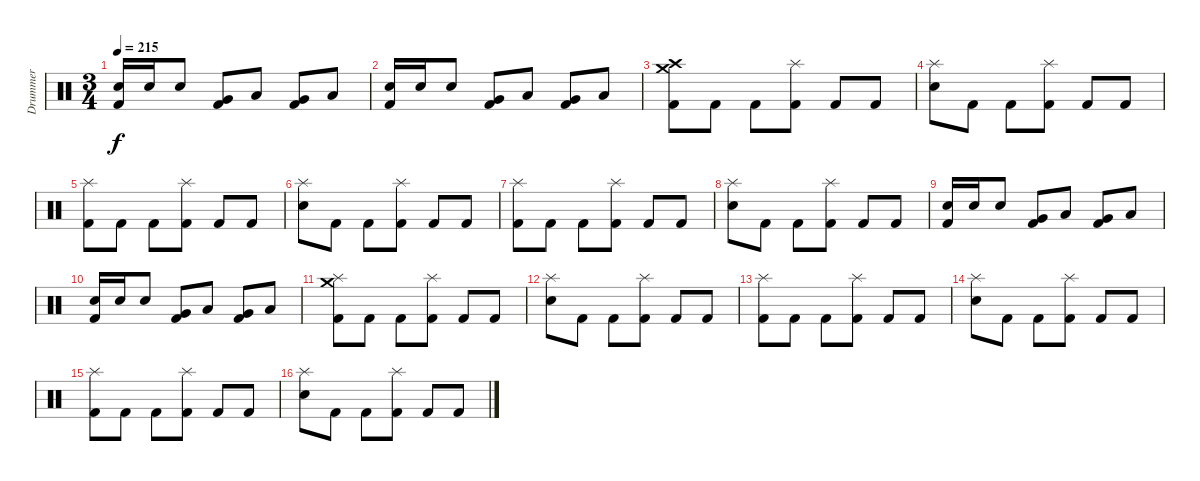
\track ("Drummer" "Drummer") {instrument percussion bank 7}
\staff {score}
\articulation defaults
\ts (3 4)
\tempo 215
\clef neutral
\ks c
("Electric Snare (hit)" "Kick (hit) 2").16{dy f} "Electric Snare (hit)".16 "Electric Snare (hit)".8 ("Very Low Tom (hit)" "Kick (hit) 2").8 "Low Tom (hit)".8 ("Very Low Tom (hit)" "Kick (hit) 2").8 "Low Floor Tom (hit)".8 |
("Electric Snare (hit)" "Kick (hit) 2").16 "Electric Snare (hit)".16 "Electric Snare (hit)".8 ("Very Low Tom (hit)" "Kick (hit) 2").8 "Low Tom (hit)".8 ("Very Low Tom (hit)" "Kick (hit) 2").8 "Low Floor Tom (hit)".8 |
("Crash medium (hit)" "Crash high (hit)" "Kick (hit) 2").8 "Kick (hit) 2".8 "Kick (hit) 2".8 ("Splash (hit)" "Kick (hit) 2").8 "Kick (hit) 2".8 "Kick (hit) 2".8 |
("Splash (hit)" "Electric Snare (hit)").8 "Kick (hit) 2".8 "Kick (hit) 2".8 ("Splash (hit)" "Kick (hit) 2").8 "Kick (hit) 2".8 "Kick (hit) 2".8 |
("Splash (hit)" "Kick (hit) 2").8 "Kick (hit) 2".8 "Kick (hit) 2".8 ("Splash (hit)" "Kick (hit) 2").8 "Kick (hit) 2".8 "Kick (hit) 2".8 |
("Splash (hit)" "Electric Snare (hit)").8 "Kick (hit) 2".8 "Kick (hit) 2".8 ("Splash (hit)" "Kick (hit) 2").8 "Kick (hit) 2".8 "Kick (hit) 2".8 |
("Splash (hit)" "Kick (hit) 2").8 "Kick (hit) 2".8 "Kick (hit) 2".8 ("Splash (hit)" "Kick (hit) 2").8 "Kick (hit) 2".8 "Kick (hit) 2".8 |
("Splash (hit)" "Electric Snare (hit)").8 "Kick (hit) 2".8 "Kick (hit) 2".8 ("Splash (hit)" "Kick (hit) 2").8 "Kick (hit) 2".8 "Kick (hit) 2".8 |
("Electric Snare (hit)" "Kick (hit) 2").16 "Electric Snare (hit)".16 "Electric Snare (hit)".8 ("Very Low Tom (hit)" "Kick (hit) 2").8 "Low Tom (hit)".8 ("Very Low Tom (hit)" "Kick (hit) 2").8 "Low Floor Tom (hit)".8 |
("Electric Snare (hit)" "Kick (hit) 2").16 "Electric Snare (hit)".16 "Electric Snare (hit)".8 ("Very Low Tom (hit)" "Kick (hit) 2").8 "Low Tom (hit)".8 ("Very Low Tom (hit)" "Kick (hit) 2").8 "Low Floor Tom (hit)".8 |
("Crash medium (hit)" "Splash (hit)" "Kick (hit) 2").8 "Kick (hit) 2".8 "Kick (hit) 2".8 ("Splash (hit)" "Kick (hit) 2").8 "Kick (hit) 2".8 "Kick (hit) 2".8 |
("Splash (hit)" "Electric Snare (hit)").8 "Kick (hit) 2".8 "Kick (hit) 2".8 ("Splash (hit)" "Kick (hit) 2").8 "Kick (hit) 2".8 "Kick (hit) 2".8 |
("Splash (hit)" "Kick (hit) 2").8 "Kick (hit) 2".8 "Kick (hit) 2".8 ("Splash (hit)" "Kick (hit) 2").8 "Kick (hit) 2".8 "Kick (hit) 2".8 |
("Splash (hit)" "Electric Snare (hit)").8 "Kick (hit) 2".8 "Kick (hit) 2".8 ("Splash (hit)" "Kick (hit) 2").8 "Kick (hit) 2".8 "Kick (hit) 2".8 |
("Splash (hit)" "Kick (hit) 2").8 "Kick (hit) 2".8 "Kick (hit) 2".8 ("Splash (hit)" "Kick (hit) 2").8 "Kick (hit) 2".8 "Kick (hit) 2".8 |
("Splash (hit)" "Electric Snare (hit)").8 "Kick (hit) 2".8 "Kick (hit) 2".8 ("Splash (hit)" "Kick (hit) 2").8 "Kick (hit) 2".8 "Kick (hit) 2".8
